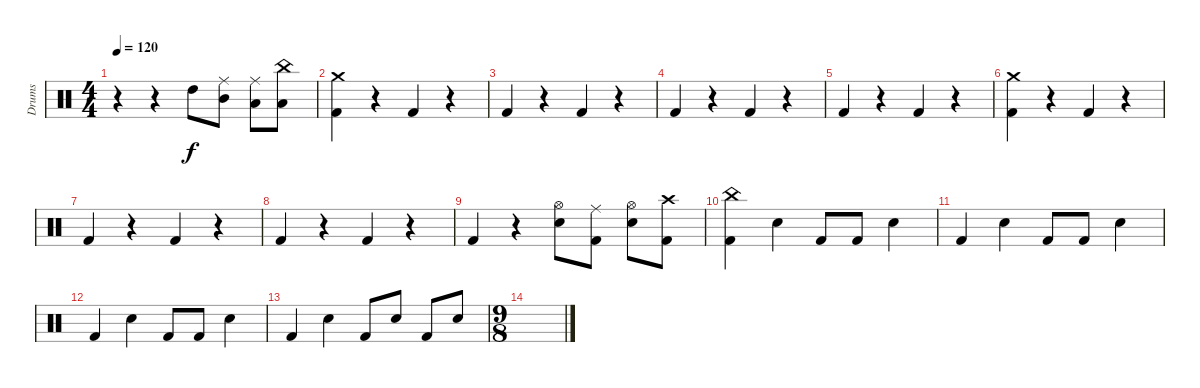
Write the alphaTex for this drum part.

\track ("Drums" "Drums") {instrument percussion}
\staff {score}
\articulation defaults
\ts (4 4)
\tempo 120
\clef neutral
\ks c
r.4{dy f} r.4 "High Tom (hit)".8 ("Ride (middle)" "Mid Tom (hit)").8 ("Ride (middle)" "Low Tom (hit)").8 ("China (hit)" "Low Floor Tom (hit)").8 |
("Crash medium (hit)" "Kick (hit) 2").4 r.4 "Kick (hit) 2".4 r.4 |
"Kick (hit) 2".4 r.4 "Kick (hit) 2".4 r.4 |
"Kick (hit) 2".4 r.4 "Kick (hit) 2".4 r.4 |
"Kick (hit) 2".4 r.4 "Kick (hit) 2".4 r.4 |
("Crash medium (hit)" "Kick (hit) 2").4 r.4 "Kick (hit) 2".4 r.4 |
"Kick (hit) 2".4 r.4 "Kick (hit) 2".4 r.4 |
"Kick (hit) 2".4 r.4 "Kick (hit) 2".4 r.4 |
"Kick (hit) 2".4 r.4 ("Hi-Hat (open)" "Snare (hit) 2").8 ("Ride (middle)" "Kick (hit) 2").8 ("Hi-Hat (open)" "Snare (hit) 2").8 ("Crash high (hit)" "Kick (hit) 2").8 |
("China (hit)" "Kick (hit) 2").4 "Snare (hit) 2".4 "Kick (hit) 2".8 "Kick (hit) 2".8 "Snare (hit) 2".4 |
"Kick (hit) 2".4 "Snare (hit) 2".4 "Kick (hit) 2".8 "Kick (hit) 2".8 "Snare (hit) 2".4 |
"Kick (hit) 2".4 "Snare (hit) 2".4 "Kick (hit) 2".8 "Kick (hit) 2".8 "Snare (hit) 2".4 |
"Kick (hit) 2".4 "Snare (hit) 2".4 "Kick (hit) 2".8 "Snare (hit) 2".8 "Kick (hit) 2".8 "Snare (hit) 2".8 |
\ts (9 8)
